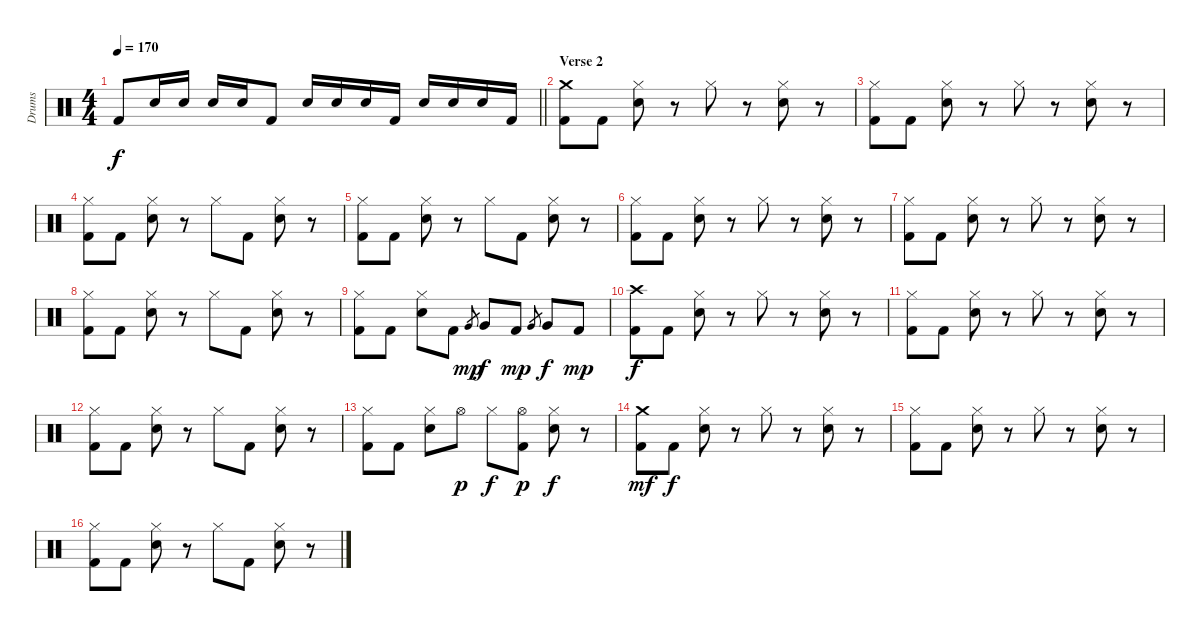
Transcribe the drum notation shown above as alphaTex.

\track ("Drums" "Drums") {instrument percussion}
\staff {score}
\articulation defaults
\ts (4 4)
\tempo 170
\clef neutral
\barLineRight lightlight
\ks c "Kick (hit) 2".8{dy f} "Electric Snare (hit)".16 "Electric Snare (hit)".16 "Electric Snare (hit)".16 "Electric Snare (hit)".16 "Kick (hit) 2".8 "Electric Snare (hit)".16 "Electric Snare (hit)".16 "Electric Snare (hit)".16 "Kick (hit) 2".16 "Electric Snare (hit)".16 "Electric Snare (hit)".16 "Electric Snare (hit)".16 "Kick (hit) 2".16
|
\section ("" "Verse 2")
("Crash medium (hit)" "Kick (hit) 2").8 "Kick (hit) 2".8 ("Hi-Hat (closed)" "Electric Snare (hit)").8 r.8 "Hi-Hat (closed)".8 r.8 ("Hi-Hat (closed)" "Electric Snare (hit)").8 r.8 |
("Hi-Hat (closed)" "Kick (hit) 2").8 "Kick (hit) 2".8 ("Hi-Hat (closed)" "Electric Snare (hit)").8 r.8 "Hi-Hat (closed)".8 r.8 ("Hi-Hat (closed)" "Electric Snare (hit)").8 r.8 |
("Hi-Hat (closed)" "Kick (hit) 2").8 "Kick (hit) 2".8 ("Hi-Hat (closed)" "Electric Snare (hit)").8 r.8 "Hi-Hat (closed)".8 "Kick (hit) 2".8 ("Hi-Hat (closed)" "Electric Snare (hit)").8 r.8 |
("Hi-Hat (closed)" "Kick (hit) 2").8 "Kick (hit) 2".8 ("Hi-Hat (closed)" "Electric Snare (hit)").8 r.8 "Hi-Hat (closed)".8 "Kick (hit) 2".8 ("Hi-Hat (closed)" "Electric Snare (hit)").8 r.8 |
("Hi-Hat (closed)" "Kick (hit) 2").8 "Kick (hit) 2".8 ("Hi-Hat (closed)" "Electric Snare (hit)").8 r.8 "Hi-Hat (closed)".8 r.8 ("Hi-Hat (closed)" "Electric Snare (hit)").8 r.8 |
("Hi-Hat (closed)" "Kick (hit) 2").8 "Kick (hit) 2".8 ("Hi-Hat (closed)" "Electric Snare (hit)").8 r.8 "Hi-Hat (closed)".8 r.8 ("Hi-Hat (closed)" "Electric Snare (hit)").8 r.8 |
("Hi-Hat (closed)" "Kick (hit) 2").8 "Kick (hit) 2".8 ("Hi-Hat (closed)" "Electric Snare (hit)").8 r.8 "Hi-Hat (closed)".8 "Kick (hit) 2".8 ("Hi-Hat (closed)" "Electric Snare (hit)").8 r.8 |
("Hi-Hat (closed)" "Kick (hit) 2").8 "Kick (hit) 2".8 ("Hi-Hat (closed)" "Electric Snare (hit)").8 "Kick (hit) 2".8 "Very Low Tom (hit)".8{gr dy mp} "Very Low Tom (hit)".8{dy f} "Kick (hit) 2".8{dy mp} "Very Low Tom (hit)".8{gr} "Very Low Tom (hit)".8{dy f} "Kick (hit) 2".8{dy mp} |
("Crash high (hit)" "Kick (hit) 2").8{dy f} "Kick (hit) 2".8 ("Hi-Hat (closed)" "Electric Snare (hit)").8 r.8 "Hi-Hat (closed)".8 r.8 ("Hi-Hat (closed)" "Electric Snare (hit)").8 r.8 |
("Hi-Hat (closed)" "Kick (hit) 2").8 "Kick (hit) 2".8 ("Hi-Hat (closed)" "Electric Snare (hit)").8 r.8 "Hi-Hat (closed)".8 r.8 ("Hi-Hat (closed)" "Electric Snare (hit)").8 r.8 |
("Hi-Hat (closed)" "Kick (hit) 2").8 "Kick (hit) 2".8 ("Hi-Hat (closed)" "Electric Snare (hit)").8 r.8 "Hi-Hat (closed)".8 "Kick (hit) 2".8 ("Hi-Hat (closed)" "Electric Snare (hit)").8 r.8 |
("Hi-Hat (closed)" "Kick (hit) 2").8 "Kick (hit) 2".8 ("Hi-Hat (closed)" "Electric Snare (hit)").8 "Hi-Hat (open)".8{dy p} "Hi-Hat (closed)".8{dy f} ("Hi-Hat (open)" "Kick (hit) 2").8{dy p} ("Hi-Hat (closed)" "Electric Snare (hit)").8{dy f} r.8 |
("Crash medium (hit)" "Kick (hit) 2").8{dy mf} "Kick (hit) 2".8{dy f} ("Hi-Hat (closed)" "Electric Snare (hit)").8 r.8 "Hi-Hat (closed)".8 r.8 ("Hi-Hat (closed)" "Electric Snare (hit)").8 r.8 |
("Hi-Hat (closed)" "Kick (hit) 2").8 "Kick (hit) 2".8 ("Hi-Hat (closed)" "Electric Snare (hit)").8 r.8 "Hi-Hat (closed)".8 r.8 ("Hi-Hat (closed)" "Electric Snare (hit)").8 r.8 |
("Hi-Hat (closed)" "Kick (hit) 2").8 "Kick (hit) 2".8 ("Hi-Hat (closed)" "Electric Snare (hit)").8 r.8 "Hi-Hat (closed)".8 "Kick (hit) 2".8 ("Hi-Hat (closed)" "Electric Snare (hit)").8 r.8
